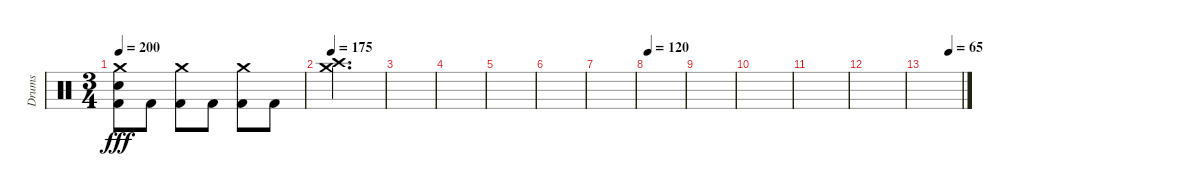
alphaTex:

\track ("Drums" "Drums") {instrument percussion}
\staff {score}
\articulation defaults
\ts (3 4)
\tempo 200
\clef neutral
\ks c
("Crash medium (hit)" "Snare (hit) 2" "Kick (hit) 2").8{dy fff} "Kick (hit) 2".8 ("Crash medium (hit)" "Kick (hit) 2").8 "Kick (hit) 2".8 ("Crash medium (hit)" "Kick (hit) 2").8 "Kick (hit) 2".8 |
\tempo 175
("Crash medium (hit)" "Crash high (hit)").2{d} |
|
|
|
|
|
\tempo 120
|
|
|
|
|
\tempo (65 0.6666666666666666)
